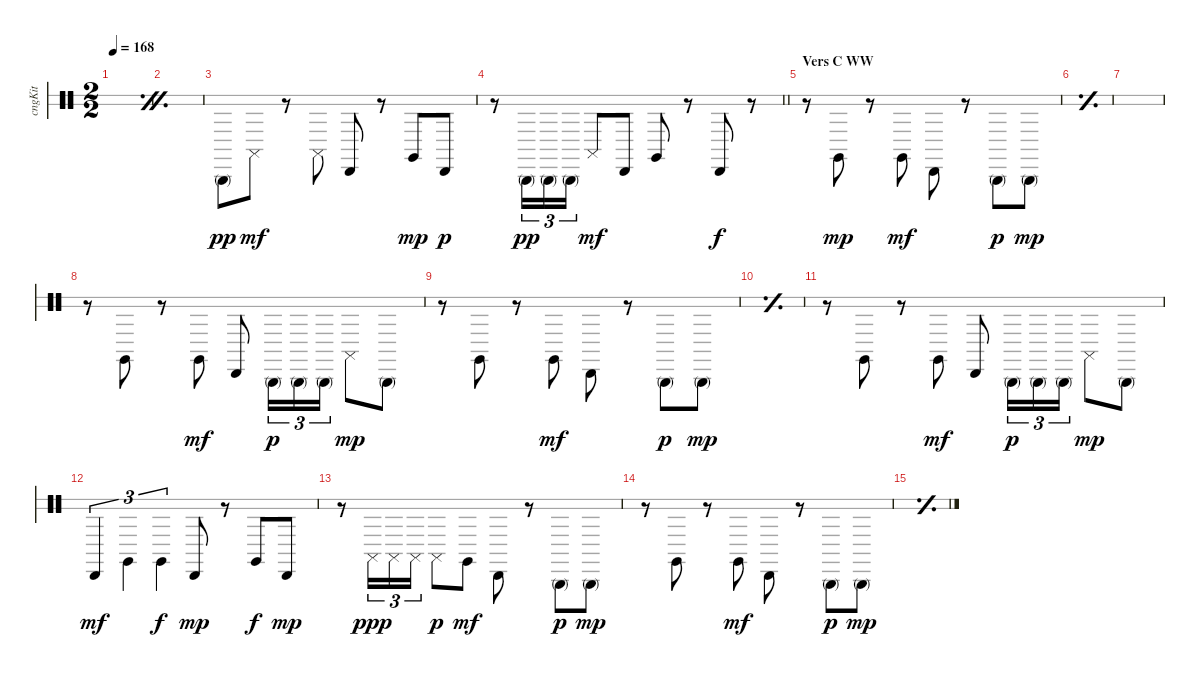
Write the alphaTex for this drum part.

\bracketExtendMode groupsimilarinstruments
\multiTrackTrackNamePolicy hidden
\otherSystemsTrackNameOrientation horizontal
\track ("Congas" "cngKit") {instrument percussion}
\staff {score 2}
\articulation defaults
\ts (2 2)
\tempo 168
\clef neutral
\simile firstofdouble
\ks c
|
\simile secondofdouble
|
\simile none "Conga high (mute)".8{dy pp beam Down} "Conga high (slap)".8{dy mf beam Down}
r.8{beam Down} "Conga high (slap)".8{beam Down} "Conga low (hit)".8{beam Up} r.8{beam Up} "Conga high (hit)".8{dy mp beam Up} "Conga low (hit)".8{dy p beam Up} |
\barLineRight lightlight
r.8{beam Down} "Conga high (mute)".16{tu (3 2) dy pp beam Down} "Conga high (mute)".16{tu (3 2) beam Down} "Conga high (mute)".16{tu (3 2) beam Down} "Conga high (slap)".8{dy mf beam Up} "Conga low (hit)".8{beam Up} "Conga high (hit)".8{beam Up} r.8{beam Up} "Conga low (hit)".8{dy f beam Up} r.8{beam Up} |
\section ("" "Vers C WW")
r.8{beam Down} "Conga high (hit)".8{dy mp beam Down} r.8{beam Down} "Conga high (hit)".8{dy mf beam Down} "Conga low (hit)".8{beam Down} r.8{beam Down} "Conga high (mute)".8{dy p beam Down} "Conga high (mute)".8{dy mp beam Down} |
\simile simple
|
|
\simile none
r.8{beam Down} "Conga high (hit)".8{beam Down} r.8{beam Down} "Conga high (hit)".8{dy mf beam Down} "Conga low (hit)".8{beam Up} "Conga high (mute)".16{tu (3 2) dy p beam Down} "Conga high (mute)".16{tu (3 2) beam Down} "Conga high (mute)".16{tu (3 2) beam Down} "Conga high (slap)".8{dy mp beam Down} "Conga high (mute)".8{beam Down} |
r.8{beam Down} "Conga high (hit)".8{beam Down} r.8{beam Down} "Conga high (hit)".8{dy mf beam Down} "Conga low (hit)".8{beam Down} r.8{beam Down} "Conga high (mute)".8{dy p beam Down} "Conga high (mute)".8{dy mp beam Down} |
\simile simple
|
\simile none
r.8{beam Down} "Conga high (hit)".8{beam Down} r.8{beam Down} "Conga high (hit)".8{dy mf beam Down} "Conga low (hit)".8{beam Up} "Conga high (mute)".16{tu (3 2) dy p beam Down} "Conga high (mute)".16{tu (3 2) beam Down} "Conga high (mute)".16{tu (3 2) beam Down} "Conga high (slap)".8{dy mp beam Down} "Conga high (mute)".8{beam Down} |
"Conga low (hit)".4{tu (3 2) dy mf beam Up} "Conga high (hit)".4{tu (3 2) beam Down} "Conga high (hit)".4{tu (3 2) dy f beam Down} "Conga low (hit)".8{dy mp beam Up} r.8{beam Up} "Conga high (hit)".8{dy f beam Up} "Conga low (hit)".8{dy mp beam Up} |
r.8{beam Down} "Conga high (slap)".16{tu (3 2) dy ppp beam Down} "Conga high (slap)".16{tu (3 2) beam Down} "Conga high (slap)".16{tu (3 2) beam Down} "Conga high (slap)".8{dy p beam Down} "Conga high (hit)".8{dy mf beam Down} "Conga low (hit)".8{beam Down} r.8{beam Down} "Conga high (mute)".8{dy p beam Down} "Conga high (mute)".8{dy mp beam Down} |
r.8{beam Down} "Conga high (hit)".8{beam Down} r.8{beam Down} "Conga high (hit)".8{dy mf beam Down} "Conga low (hit)".8{beam Down} r.8{beam Down} "Conga high (mute)".8{dy p beam Down} "Conga high (mute)".8{dy mp beam Down} |
\simile simple
